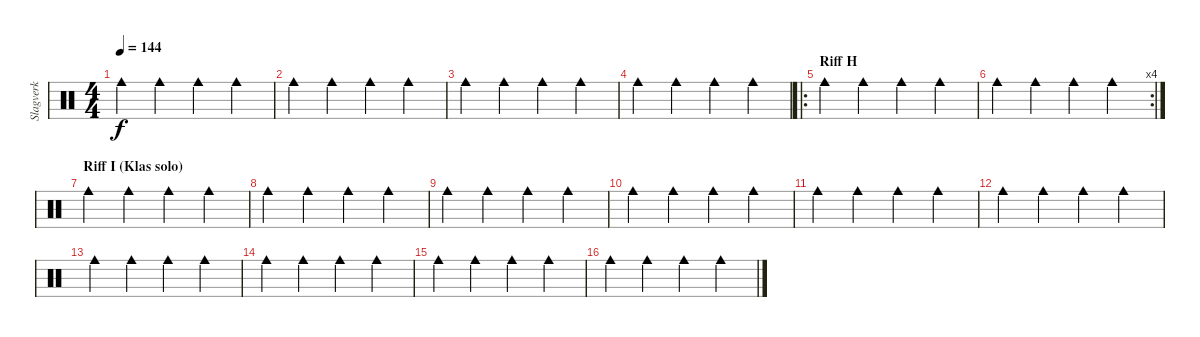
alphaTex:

\track ("Slagverk" "Slagverk") {instrument percussion}
\staff {score}
\articulation defaults
\ts (4 4)
\tempo 144
\clef neutral
\ks c "Cowbell medium (hit)".4{dy f} "Cowbell medium (hit)".4 "Cowbell medium (hit)".4 "Cowbell medium (hit)".4
|
"Cowbell medium (hit)".4 "Cowbell medium (hit)".4 "Cowbell medium (hit)".4 "Cowbell medium (hit)".4 |
"Cowbell medium (hit)".4 "Cowbell medium (hit)".4 "Cowbell medium (hit)".4 "Cowbell medium (hit)".4 |
"Cowbell medium (hit)".4 "Cowbell medium (hit)".4 "Cowbell medium (hit)".4 "Cowbell medium (hit)".4 |
\ro
\section ("" "Riff H")
"Cowbell medium (hit)".4 "Cowbell medium (hit)".4 "Cowbell medium (hit)".4 "Cowbell medium (hit)".4 |
\rc 4 "Cowbell medium (hit)".4 "Cowbell medium (hit)".4 "Cowbell medium (hit)".4 "Cowbell medium (hit)".4
|
\section ("" "Riff I (Klas solo)")
"Cowbell medium (hit)".4 "Cowbell medium (hit)".4 "Cowbell medium (hit)".4 "Cowbell medium (hit)".4 |
"Cowbell medium (hit)".4 "Cowbell medium (hit)".4 "Cowbell medium (hit)".4 "Cowbell medium (hit)".4 |
"Cowbell medium (hit)".4 "Cowbell medium (hit)".4 "Cowbell medium (hit)".4 "Cowbell medium (hit)".4 |
"Cowbell medium (hit)".4 "Cowbell medium (hit)".4 "Cowbell medium (hit)".4 "Cowbell medium (hit)".4 |
"Cowbell medium (hit)".4 "Cowbell medium (hit)".4 "Cowbell medium (hit)".4 "Cowbell medium (hit)".4 |
"Cowbell medium (hit)".4 "Cowbell medium (hit)".4 "Cowbell medium (hit)".4 "Cowbell medium (hit)".4 |
"Cowbell medium (hit)".4 "Cowbell medium (hit)".4 "Cowbell medium (hit)".4 "Cowbell medium (hit)".4 |
"Cowbell medium (hit)".4 "Cowbell medium (hit)".4 "Cowbell medium (hit)".4 "Cowbell medium (hit)".4 |
"Cowbell medium (hit)".4 "Cowbell medium (hit)".4 "Cowbell medium (hit)".4 "Cowbell medium (hit)".4 |
"Cowbell medium (hit)".4 "Cowbell medium (hit)".4 "Cowbell medium (hit)".4 "Cowbell medium (hit)".4
